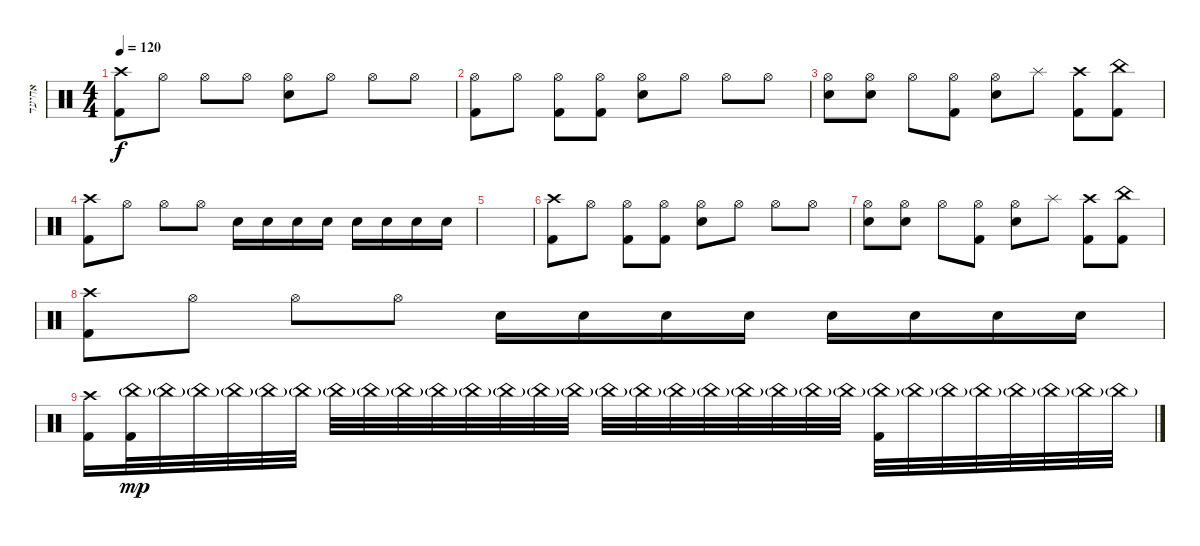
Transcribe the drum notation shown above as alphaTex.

\track ("אחיעד" "אחיעד") {instrument percussion}
\staff {score}
\articulation defaults
\ts (4 4)
\tempo 120
\clef neutral
\ks c
("Crash high (hit)" "Kick (hit) 2").8{dy f} "Hi-Hat (open)".8 "Hi-Hat (open)".8 "Hi-Hat (open)".8 ("Hi-Hat (open)" "Snare (hit) 2").8 "Hi-Hat (open)".8 "Hi-Hat (open)".8 "Hi-Hat (open)".8 |
("Hi-Hat (open)" "Kick (hit) 2").8 "Hi-Hat (open)".8 ("Hi-Hat (open)" "Kick (hit) 2").8 ("Hi-Hat (open)" "Kick (hit) 2").8 ("Hi-Hat (open)" "Snare (hit) 2").8 "Hi-Hat (open)".8 "Hi-Hat (open)".8 "Hi-Hat (open)".8 |
("Hi-Hat (open)" "Snare (hit) 2").8 ("Hi-Hat (open)" "Snare (hit) 2").8 "Hi-Hat (open)".8 ("Hi-Hat (open)" "Kick (hit) 2").8 ("Hi-Hat (open)" "Snare (hit) 2").8 "Splash (hit)".8 ("Crash high (hit)" "Kick (hit) 2").8 ("China (hit)" "Kick (hit) 2").8 |
("Crash high (hit)" "Kick (hit) 2").8 "Hi-Hat (open)".8 "Hi-Hat (open)".8 "Hi-Hat (open)".8 "Snare (hit) 2".16 "Snare (hit) 2".16 "Snare (hit) 2".16 "Snare (hit) 2".16 "Snare (hit) 2".16 "Snare (hit) 2".16 "Snare (hit) 2".16 "Snare (hit) 2".16 |
|
("Crash high (hit)" "Kick (hit) 2").8 "Hi-Hat (open)".8 ("Hi-Hat (open)" "Kick (hit) 2").8 ("Hi-Hat (open)" "Kick (hit) 2").8 ("Hi-Hat (open)" "Snare (hit) 2").8 "Hi-Hat (open)".8 "Hi-Hat (open)".8 "Hi-Hat (open)".8 |
("Hi-Hat (open)" "Snare (hit) 2").8 ("Hi-Hat (open)" "Snare (hit) 2").8 "Hi-Hat (open)".8 ("Hi-Hat (open)" "Kick (hit) 2").8 ("Hi-Hat (open)" "Snare (hit) 2").8 "Splash (hit)".8 ("Crash high (hit)" "Kick (hit) 2").8 ("China (hit)" "Kick (hit) 2").8 |
("Crash high (hit)" "Kick (hit) 2").8 "Hi-Hat (open)".8 "Hi-Hat (open)".8 "Hi-Hat (open)".8 "Snare (hit) 2".16 "Snare (hit) 2".16 "Snare (hit) 2".16 "Snare (hit) 2".16 "Snare (hit) 2".16 "Snare (hit) 2".16 "Snare (hit) 2".16 "Snare (hit) 2".16 |
("Crash high (hit)" "Kick (hit) 2").16 ("China (hit)"{g} "Kick (hit) 2").32{dy mp} "China (hit)"{g}.32 "China (hit)"{g}.32 "China (hit)"{g}.32 "China (hit)"{g}.32 "China (hit)"{g}.32 "China (hit)"{g}.32 "China (hit)"{g}.32 "China (hit)"{g}.32 "China (hit)"{g}.32 "China (hit)"{g}.32 "China (hit)"{g}.32 "China (hit)"{g}.32 "China (hit)"{g}.32 "China (hit)"{g}.32 "China (hit)"{g}.32 "China (hit)"{g}.32 "China (hit)"{g}.32 "China (hit)"{g}.32 "China (hit)"{g}.32 "China (hit)"{g}.32 "China (hit)"{g}.32 ("China (hit)"{g} "Kick (hit) 2").32 "China (hit)"{g}.32 "China (hit)"{g}.32 "China (hit)"{g}.32 "China (hit)"{g}.32 "China (hit)"{g}.32 "China (hit)"{g}.32 "China (hit)"{g}.32
